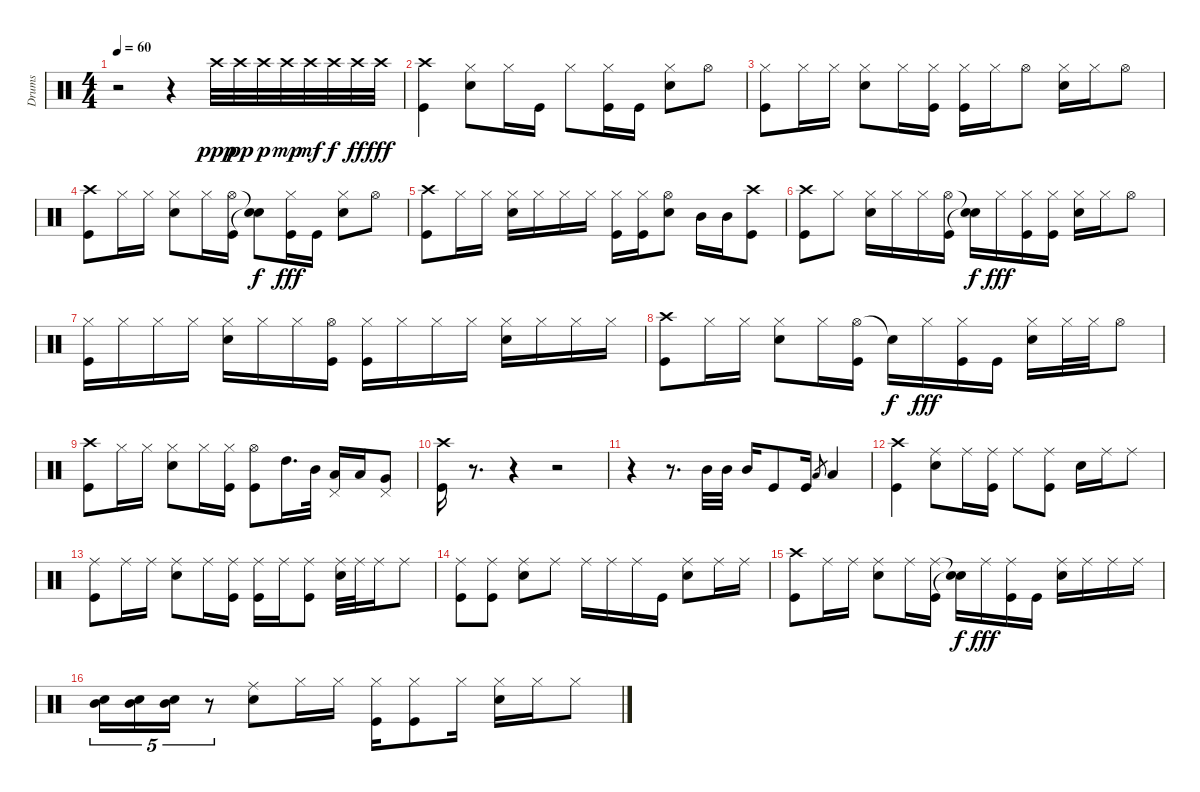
\track ("Drums" "Drums") {instrument percussion}
\staff {score}
\articulation defaults
\ts (4 4)
\tempo 60
\clef neutral
\ks c
r.2{dy ppp} r.4 "Crash high (hit)".32 "Crash high (hit)".32{dy pp} "Crash high (hit)".32{dy p} "Crash high (hit)".32{dy mp} "Crash high (hit)".32{dy mf} "Crash high (hit)".32{dy f} "Crash high (hit)".32{dy ff} "Crash high (hit)".32{dy fff} |
("Crash high (hit)" "Kick (hit)").4 ("Hi-Hat (closed)" "Snare (hit) 2").8 "Hi-Hat (closed)".16 "Kick (hit)".16 "Hi-Hat (closed)".8 ("Hi-Hat (closed)" "Kick (hit)").16 "Kick (hit)".16 ("Hi-Hat (closed)" "Snare (hit) 2").8 "Hi-Hat (open)".8 |
("Hi-Hat (closed)" "Kick (hit)").8 "Hi-Hat (closed)".16 "Hi-Hat (closed)".16 ("Hi-Hat (closed)" "Snare (hit) 2").8 "Hi-Hat (closed)".16 ("Hi-Hat (closed)" "Kick (hit)").16 ("Hi-Hat (closed)" "Kick (hit)").16 "Hi-Hat (closed)".16 "Hi-Hat (open)".8 ("Hi-Hat (closed)" "Snare (hit) 2").16 "Hi-Hat (closed)".16 "Hi-Hat (open)".8 |
("Crash high (hit)" "Kick (hit)").8 "Hi-Hat (closed)".16 "Hi-Hat (closed)".16 ("Hi-Hat (closed)" "Snare (hit) 2").8 "Hi-Hat (closed)".16 ("Hi-Hat (open)" "Kick (hit)").16 ("Snare (hit)"{t} "Snare (hit)"{t}).8{dy f} ("Hi-Hat (closed)" "Kick (hit)").16{dy fff} "Kick (hit)".16 ("Hi-Hat (closed)" "Snare (hit) 2").8 "Hi-Hat (open)".8 |
("Crash high (hit)" "Kick (hit)").8 "Hi-Hat (closed)".16 "Hi-Hat (closed)".16 ("Hi-Hat (closed)" "Snare (hit) 2").16 "Hi-Hat (closed)".16 "Hi-Hat (closed)".16 "Hi-Hat (closed)".16 ("Hi-Hat (closed)" "Kick (hit)").16 ("Hi-Hat (closed)" "Kick (hit)").16 ("Hi-Hat (open)" "Snare (hit) 2").8 "Mid Tom (hit)".16 "Mid Tom (hit)".16 ("Crash high (hit)" "Kick (hit)").8 |
("Crash high (hit)" "Kick (hit)").8 "Hi-Hat (closed)".8 ("Hi-Hat (closed)" "Snare (hit) 2").16 "Hi-Hat (closed)".16 "Hi-Hat (closed)".16 ("Hi-Hat (open)" "Kick (hit)").16 ("Snare (hit)"{t} "Snare (hit)"{t}).16{dy f} "Hi-Hat (closed)".16{dy fff} ("Hi-Hat (closed)" "Kick (hit)").16 ("Hi-Hat (closed)" "Kick (hit)").16 ("Hi-Hat (closed)" "Snare (hit) 2").16 "Hi-Hat (closed)".16 "Hi-Hat (open)".8 |
("Hi-Hat (closed)" "Kick (hit)").16 "Hi-Hat (closed)".16 "Hi-Hat (closed)".16 "Hi-Hat (closed)".16 ("Hi-Hat (closed)" "Snare (hit) 2").16 "Hi-Hat (closed)".16 "Hi-Hat (closed)".16 ("Hi-Hat (open)" "Kick (hit)").16 ("Hi-Hat (closed)" "Kick (hit)").16 "Hi-Hat (closed)".16 "Hi-Hat (closed)".16 "Hi-Hat (closed)".16 ("Hi-Hat (closed)" "Snare (hit) 2").16 "Hi-Hat (closed)".16 "Hi-Hat (closed)".16 "Hi-Hat (closed)".16 |
("Crash high (hit)" "Kick (hit)").8 "Hi-Hat (closed)".16 "Hi-Hat (closed)".16 ("Hi-Hat (closed)" "Snare (hit) 2").8 "Hi-Hat (closed)".16 ("Hi-Hat (open)" "Kick (hit)").16 "Snare (hit)"{t}.16{dy f} "Hi-Hat (closed)".16{dy fff} ("Hi-Hat (closed)" "Kick (hit)").16 "Kick (hit)".16 ("Hi-Hat (closed)" "Snare (hit) 2").16 "Hi-Hat (closed)".32 "Hi-Hat (closed)".32 "Hi-Hat (open)".8 |
("Crash high (hit)" "Kick (hit)").8 "Hi-Hat (closed)".16 "Hi-Hat (closed)".16 ("Hi-Hat (closed)" "Snare (hit) 2").8 "Hi-Hat (closed)".16 ("Hi-Hat (closed)" "Kick (hit)").16 ("Hi-Hat (open)" "Kick (hit)").8 "High Tom (hit)".16{d} "Mid Tom (hit)".32 ("Pedal Hi-Hat (hit)" "Low Tom (hit)").16 "Low Tom (hit)".16 ("Pedal Hi-Hat (hit)" "Very Low Tom (hit)").8 |
("Crash high (hit)" "Kick (hit)").16 r.8{d} r.4 r.2 |
r.4 r.8{d} "Mid Tom (hit)".32 "Mid Tom (hit)".32 "Mid Tom (hit)".16 "Kick (hit)".8 "Kick (hit)".16 "Low Tom (hit)".8{gr} "Low Tom (hit)".4 |
("Crash high (hit)" "Kick (hit)").4 ("Ride (middle)" "Snare (hit) 2").8 "Ride (middle)".16 ("Ride (middle)" "Kick (hit)").16 "Ride (middle)".8 ("Ride (middle)" "Kick (hit)").8 "Snare (hit) 2".16 "Ride (middle)".16 "Ride (middle)".8 |
("Ride (middle)" "Kick (hit)").8 "Ride (middle)".16 "Ride (middle)".16 ("Ride (middle)" "Snare (hit) 2").8 "Ride (middle)".16 ("Ride (middle)" "Kick (hit)").16 ("Ride (middle)" "Kick (hit)").16 "Ride (middle)".16 ("Ride (middle)" "Kick (hit)").8 ("Ride (middle)" "Snare (hit) 2").32 "Ride (middle)".32 "Ride (middle)".16 "Ride (middle)".8 |
("Ride (middle)" "Kick (hit)").8 ("Ride (middle)" "Kick (hit)").8 ("Ride (middle)" "Snare (hit) 2").8 "Ride (middle)".8 "Ride (middle)".16 "Ride (middle)".16 "Ride (middle)".16 "Kick (hit)".16 ("Ride (middle)" "Snare (hit) 2").8 "Ride (middle)".16 "Ride (middle)".16 |
("Crash high (hit)" "Kick (hit)").8 "Ride (middle)".16 "Ride (middle)".16 ("Ride (middle)" "Snare (hit) 2").8 "Ride (middle)".16 ("Ride (middle)" "Kick (hit)").16 ("Snare (hit)"{t} "Snare (hit)"{t}).16{dy f} "Ride (middle)".16{dy fff} ("Ride (middle)" "Kick (hit)").16 "Kick (hit)".16 ("Ride (middle)" "Snare (hit) 2").16 "Ride (middle)".16 "Ride (middle)".16 "Ride (middle)".16 |
("Mid Tom (hit)" "Snare (hit) 2").16{tu (5 4)} ("Mid Tom (hit)" "Snare (hit) 2").16{tu (5 4)} ("Mid Tom (hit)" "Snare (hit) 2").16{tu (5 4)} r.8{tu (5 4)} ("Ride (middle)" "Snare (hit) 2").8 "Hi-Hat (closed)".16 "Hi-Hat (closed)".16 ("Hi-Hat (closed)" "Kick (hit)").16 ("Hi-Hat (closed)" "Kick (hit)").8 "Hi-Hat (closed)".16 ("Hi-Hat (closed)" "Snare (hit) 2").16 "Hi-Hat (closed)".16 "Hi-Hat (closed)".8
